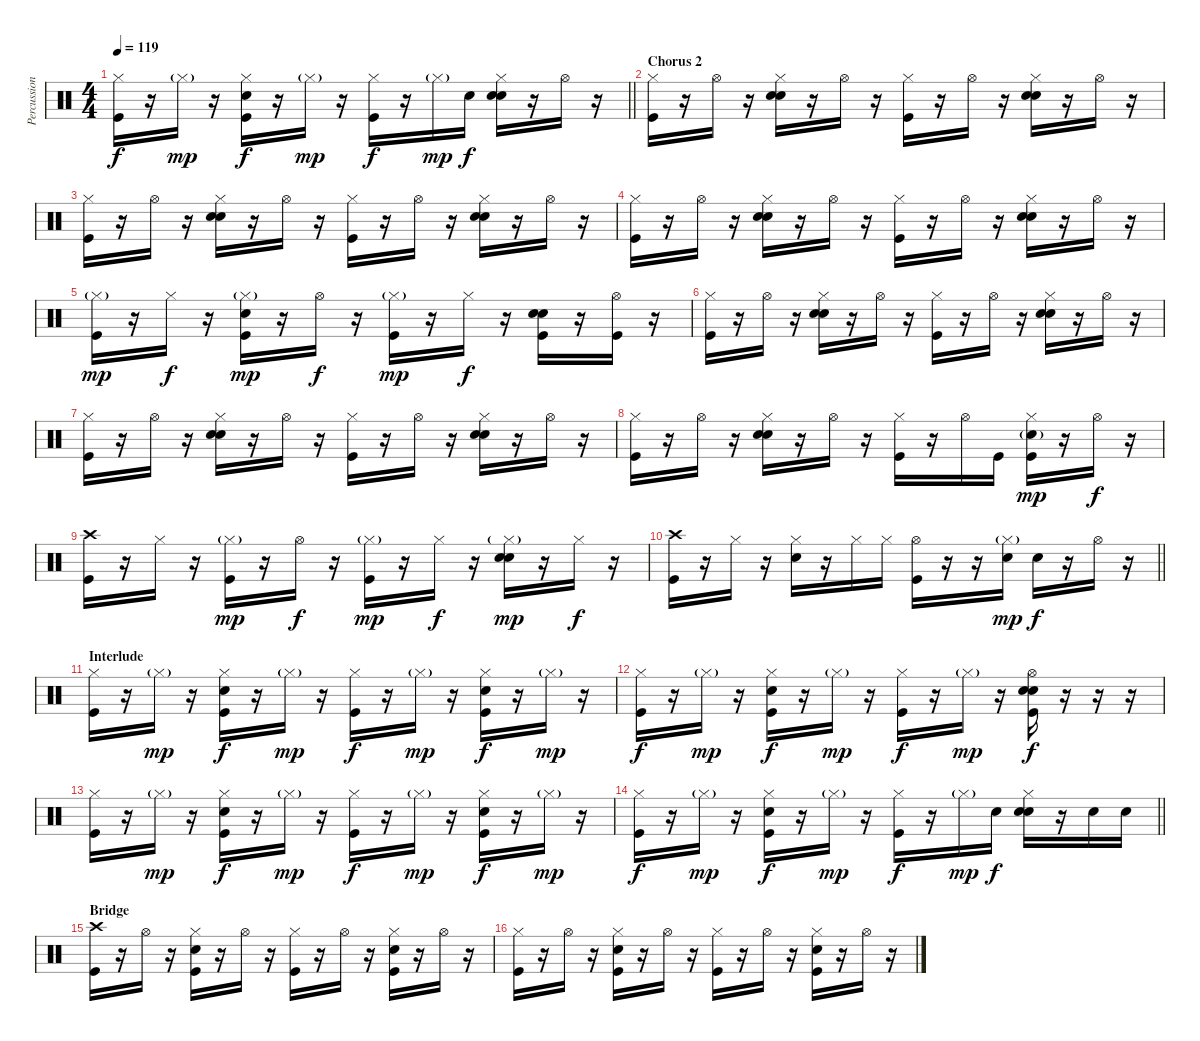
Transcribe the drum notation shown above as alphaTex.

\track ("Percussion" "Percussion") {instrument percussion}
\staff {score}
\articulation defaults
\ts (4 4)
\tempo 119
\clef neutral
\barLineRight lightlight
\ks c
("Hi-Hat (closed)" "Kick (hit)").16{dy f} r.16 "Hi-Hat (closed)"{g}.16{dy mp} r.16 ("Hi-Hat (closed)" "Snare (hit) 2" "Kick (hit)").16{dy f} r.16 "Hi-Hat (closed)"{g}.16{dy mp} r.16 ("Hi-Hat (closed)" "Kick (hit)").16{dy f} r.16 "Hi-Hat (closed)"{g}.16{dy mp} "Snare (hit) 2".16{dy f} ("Hi-Hat (closed)" "Hand Clap (hit)" "Snare (hit) 2").16 r.16 "Hi-Hat (open)".16 r.16 |
\section ("" "Chorus 2")
("Hi-Hat (closed)" "Kick (hit)").16 r.16 "Hi-Hat (open)".16 r.16 ("Hi-Hat (closed)" "Hand Clap (hit)" "Snare (hit) 2").16 r.16 "Hi-Hat (open)".16 r.16 ("Hi-Hat (closed)" "Kick (hit)").16 r.16 "Hi-Hat (open)".16 r.16 ("Hi-Hat (closed)" "Hand Clap (hit)" "Snare (hit) 2").16 r.16 "Hi-Hat (open)".16 r.16 |
("Hi-Hat (closed)" "Kick (hit)").16 r.16 "Hi-Hat (open)".16 r.16 ("Hi-Hat (closed)" "Hand Clap (hit)" "Snare (hit) 2").16 r.16 "Hi-Hat (open)".16 r.16 ("Hi-Hat (closed)" "Kick (hit)").16 r.16 "Hi-Hat (open)".16 r.16 ("Hi-Hat (closed)" "Hand Clap (hit)" "Snare (hit) 2").16 r.16 "Hi-Hat (open)".16 r.16 |
("Hi-Hat (closed)" "Kick (hit)").16 r.16 "Hi-Hat (open)".16 r.16 ("Hi-Hat (closed)" "Hand Clap (hit)" "Snare (hit) 2").16 r.16 "Hi-Hat (open)".16 r.16 ("Hi-Hat (closed)" "Kick (hit)").16 r.16 "Hi-Hat (open)".16 r.16 ("Hi-Hat (closed)" "Hand Clap (hit)" "Snare (hit) 2").16 r.16 "Hi-Hat (open)".16 r.16 |
("Hi-Hat (closed)"{g} "Kick (hit)").16{dy mp} r.16 "Hi-Hat (closed)".16{dy f} r.16 ("Hi-Hat (closed)"{g} "Hand Clap (hit)" "Kick (hit)").16{dy mp} r.16 "Hi-Hat (open)".16{dy f} r.16 ("Hi-Hat (closed)"{g} "Kick (hit)").16{dy mp} r.16 "Hi-Hat (closed)".16{dy f} r.16 ("Hand Clap (hit)" "Snare (hit) 2" "Kick (hit)").16 r.16 ("Hi-Hat (open)" "Kick (hit)").16 r.16 |
("Hi-Hat (closed)" "Kick (hit)").16 r.16 "Hi-Hat (open)".16 r.16 ("Hi-Hat (closed)" "Hand Clap (hit)" "Snare (hit) 2").16 r.16 "Hi-Hat (open)".16 r.16 ("Hi-Hat (closed)" "Kick (hit)").16 r.16 "Hi-Hat (open)".16 r.16 ("Hi-Hat (closed)" "Hand Clap (hit)" "Snare (hit) 2").16 r.16 "Hi-Hat (open)".16 r.16 |
("Hi-Hat (closed)" "Kick (hit)").16 r.16 "Hi-Hat (open)".16 r.16 ("Hi-Hat (closed)" "Hand Clap (hit)" "Snare (hit) 2").16 r.16 "Hi-Hat (open)".16 r.16 ("Hi-Hat (closed)" "Kick (hit)").16 r.16 "Hi-Hat (open)".16 r.16 ("Hi-Hat (closed)" "Hand Clap (hit)" "Snare (hit) 2").16 r.16 "Hi-Hat (open)".16 r.16 |
("Hi-Hat (closed)" "Kick (hit)").16 r.16 "Hi-Hat (open)".16 r.16 ("Hi-Hat (closed)" "Hand Clap (hit)" "Snare (hit) 2").16 r.16 "Hi-Hat (open)".16 r.16 ("Hi-Hat (closed)" "Kick (hit)").16 r.16 "Hi-Hat (open)".16 "Kick (hit)".16 ("Hi-Hat (closed)" "Hand Clap (hit)"{g} "Kick (hit)").16{dy mp} r.16 "Hi-Hat (open)".16{dy f} r.16 |
("Crash high (hit)" "Kick (hit)").16 r.16 "Hi-Hat (closed)".16 r.16 ("Hi-Hat (closed)"{g} "Kick (hit)").16{dy mp} r.16 "Hi-Hat (open)".16{dy f} r.16 ("Hi-Hat (closed)"{g} "Kick (hit)").16{dy mp} r.16 "Hi-Hat (closed)".16{dy f} r.16 ("Hi-Hat (closed)"{g} "Hand Clap (hit)" "Snare (hit) 2").16{dy mp} r.16 "Hi-Hat (closed)".16{dy f} r.16 |
\barLineRight lightlight
("Crash high (hit)" "Kick (hit)").16 r.16 "Hi-Hat (closed)".16 r.16 ("Hi-Hat (closed)" "Hand Clap (hit)").16 r.16 "Hi-Hat (closed)".16 "Hi-Hat (closed)".16 ("Hi-Hat (open)" "Kick (hit)").16 r.16 r.16 ("Hi-Hat (closed)"{g} "Snare (hit) 2").16{dy mp} "Snare (hit) 2".16{dy f} r.16 "Hi-Hat (open)".16 r.16 |
\section ("" "Interlude")
("Hi-Hat (closed)" "Kick (hit)").16 r.16 "Hi-Hat (closed)"{g}.16{dy mp} r.16 ("Hi-Hat (closed)" "Snare (hit) 2" "Kick (hit)").16{dy f} r.16 "Hi-Hat (closed)"{g}.16{dy mp} r.16 ("Hi-Hat (closed)" "Kick (hit)").16{dy f} r.16 "Hi-Hat (closed)"{g}.16{dy mp} r.16 ("Hi-Hat (closed)" "Snare (hit) 2" "Kick (hit)").16{dy f} r.16 "Hi-Hat (closed)"{g}.16{dy mp} r.16 |
("Hi-Hat (closed)" "Kick (hit)").16{dy f} r.16 "Hi-Hat (closed)"{g}.16{dy mp} r.16 ("Hi-Hat (closed)" "Snare (hit) 2" "Kick (hit)").16{dy f} r.16 "Hi-Hat (closed)"{g}.16{dy mp} r.16 ("Hi-Hat (closed)" "Kick (hit)").16{dy f} r.16 "Hi-Hat (closed)"{g}.16{dy mp} r.16 ("Hi-Hat (open)" "Hand Clap (hit)" "Snare (hit) 2" "Kick (hit)").16{dy f} r.16 r.16 r.16 |
("Hi-Hat (closed)" "Kick (hit)").16 r.16 "Hi-Hat (closed)"{g}.16{dy mp} r.16 ("Hi-Hat (closed)" "Snare (hit) 2" "Kick (hit)").16{dy f} r.16 "Hi-Hat (closed)"{g}.16{dy mp} r.16 ("Hi-Hat (closed)" "Kick (hit)").16{dy f} r.16 "Hi-Hat (closed)"{g}.16{dy mp} r.16 ("Hi-Hat (closed)" "Snare (hit) 2" "Kick (hit)").16{dy f} r.16 "Hi-Hat (closed)"{g}.16{dy mp} r.16 |
\barLineRight lightlight
("Hi-Hat (closed)" "Kick (hit)").16{dy f} r.16 "Hi-Hat (closed)"{g}.16{dy mp} r.16 ("Hi-Hat (closed)" "Snare (hit) 2" "Kick (hit)").16{dy f} r.16 "Hi-Hat (closed)"{g}.16{dy mp} r.16 ("Hi-Hat (closed)" "Kick (hit)").16{dy f} r.16 "Hi-Hat (closed)"{g}.16{dy mp} "Snare (hit) 2".16{dy f} ("Hi-Hat (closed)" "Hand Clap (hit)" "Snare (hit) 2").16 r.16 "Snare (hit) 2".16 "Snare (hit) 2".16 |
\section ("" "Bridge")
("Crash high (hit)" "Kick (hit)").16 r.16 "Hi-Hat (open)".16 r.16 ("Hi-Hat (closed)" "Snare (hit) 2" "Kick (hit)").16 r.16 "Hi-Hat (open)".16 r.16 ("Hi-Hat (closed)" "Kick (hit)").16 r.16 "Hi-Hat (open)".16 r.16 ("Hi-Hat (closed)" "Snare (hit) 2" "Kick (hit)").16 r.16 "Hi-Hat (open)".16 r.16 |
("Hi-Hat (closed)" "Kick (hit)").16 r.16 "Hi-Hat (open)".16 r.16 ("Hi-Hat (closed)" "Snare (hit) 2" "Kick (hit)").16 r.16 "Hi-Hat (open)".16 r.16 ("Hi-Hat (closed)" "Kick (hit)").16 r.16 "Hi-Hat (open)".16 r.16 ("Hi-Hat (closed)" "Snare (hit) 2" "Kick (hit)").16 r.16 "Hi-Hat (open)".16 r.16
